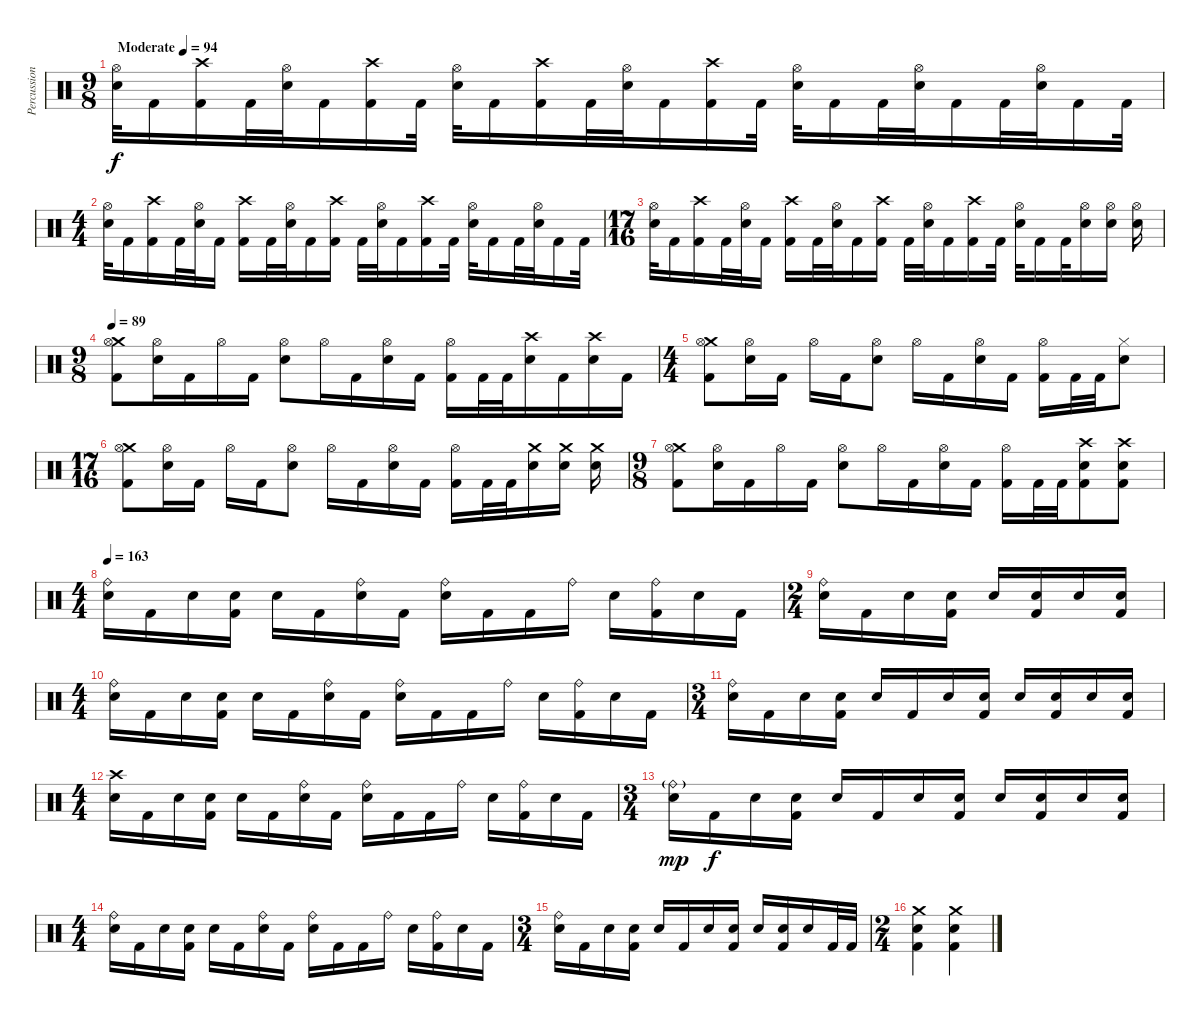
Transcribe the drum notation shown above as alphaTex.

\track ("Percussion" "Percussion") {instrument percussion}
\staff {score}
\articulation defaults
\ts (9 8)
\tempo (94 "Moderate")
\clef neutral
\ks c
("Hi-Hat (open)" "Electric Snare (hit)").32{dy f} "Kick (hit) 2".16 ("Crash high (hit)" "Kick (hit) 2").16 "Kick (hit) 2".32 ("Hi-Hat (open)" "Electric Snare (hit)").32 "Kick (hit) 2".16 ("Crash high (hit)" "Kick (hit) 2").16 "Kick (hit) 2".32 ("Hi-Hat (open)" "Electric Snare (hit)").32 "Kick (hit) 2".16 ("Crash high (hit)" "Kick (hit) 2").16 "Kick (hit) 2".32 ("Hi-Hat (open)" "Electric Snare (hit)").32 "Kick (hit) 2".16 ("Crash high (hit)" "Kick (hit) 2").16 "Kick (hit) 2".32 ("Hi-Hat (open)" "Electric Snare (hit)").32 "Kick (hit) 2".16 "Kick (hit) 2".32 ("Hi-Hat (open)" "Electric Snare (hit)").32 "Kick (hit) 2".16 "Kick (hit) 2".32 ("Hi-Hat (open)" "Electric Snare (hit)").32 "Kick (hit) 2".16 "Kick (hit) 2".32 |
\ts (4 4)
("Hi-Hat (open)" "Electric Snare (hit)").32 "Kick (hit) 2".16 ("Crash high (hit)" "Kick (hit) 2").16 "Kick (hit) 2".32 ("Hi-Hat (open)" "Electric Snare (hit)").32 "Kick (hit) 2".16 ("Crash high (hit)" "Kick (hit) 2").16 "Kick (hit) 2".32 ("Hi-Hat (open)" "Electric Snare (hit)").32 "Kick (hit) 2".16 ("Crash high (hit)" "Kick (hit) 2").16 "Kick (hit) 2".32 ("Hi-Hat (open)" "Electric Snare (hit)").32 "Kick (hit) 2".16 ("Crash high (hit)" "Kick (hit) 2").16 "Kick (hit) 2".32 ("Hi-Hat (open)" "Electric Snare (hit)").32 "Kick (hit) 2".16 "Kick (hit) 2".32 ("Hi-Hat (open)" "Electric Snare (hit)").32 "Kick (hit) 2".16 "Kick (hit) 2".32 |
\ts (17 16)
("Hi-Hat (open)" "Electric Snare (hit)").32 "Kick (hit) 2".16 ("Crash high (hit)" "Kick (hit) 2").16 "Kick (hit) 2".32 ("Hi-Hat (open)" "Electric Snare (hit)").32 "Kick (hit) 2".16 ("Crash high (hit)" "Kick (hit) 2").16 "Kick (hit) 2".32 ("Hi-Hat (open)" "Electric Snare (hit)").32 "Kick (hit) 2".16 ("Crash high (hit)" "Kick (hit) 2").16 "Kick (hit) 2".32 ("Hi-Hat (open)" "Electric Snare (hit)").32 "Kick (hit) 2".16 ("Crash high (hit)" "Kick (hit) 2").16 "Kick (hit) 2".32 ("Hi-Hat (open)" "Electric Snare (hit)").32 "Kick (hit) 2".16 "Kick (hit) 2".32 ("Hi-Hat (open)" "Electric Snare (hit)").16 ("Hi-Hat (open)" "Electric Snare (hit)").16 ("Hi-Hat (open)" "Electric Snare (hit)").16 |
\ts (9 8)
\tempo 89
("Crash medium (hit)" "Hi-Hat (open)" "Kick (hit) 2").8 ("Hi-Hat (open)" "Electric Snare (hit)").16 "Kick (hit) 2".16 "Hi-Hat (open)".16 "Kick (hit) 2".16 ("Hi-Hat (open)" "Electric Snare (hit)").8 "Hi-Hat (open)".16 "Kick (hit) 2".16 ("Hi-Hat (open)" "Electric Snare (hit)").16 "Kick (hit) 2".16 ("Hi-Hat (open)" "Kick (hit) 2").16 "Kick (hit) 2".32 "Kick (hit) 2".32 ("Crash high (hit)" "Electric Snare (hit)").16 "Kick (hit) 2".16 ("Crash high (hit)" "Electric Snare (hit)").16 "Kick (hit) 2".16 |
\ts (4 4)
("Crash medium (hit)" "Hi-Hat (open)" "Kick (hit) 2").8 ("Hi-Hat (open)" "Electric Snare (hit)").16 "Kick (hit) 2".16 "Hi-Hat (open)".16 "Kick (hit) 2".16 ("Hi-Hat (open)" "Electric Snare (hit)").8 "Hi-Hat (open)".16 "Kick (hit) 2".16 ("Hi-Hat (open)" "Electric Snare (hit)").16 "Kick (hit) 2".16 ("Hi-Hat (open)" "Kick (hit) 2").16 "Kick (hit) 2".32 "Kick (hit) 2".32 ("Hi-Hat (closed)" "Electric Snare (hit)").8 |
\ts (17 16)
("Crash medium (hit)" "Hi-Hat (open)" "Kick (hit) 2").8 ("Hi-Hat (open)" "Electric Snare (hit)").16 "Kick (hit) 2".16 "Hi-Hat (open)".16 "Kick (hit) 2".16 ("Hi-Hat (open)" "Electric Snare (hit)").8 "Hi-Hat (open)".16 "Kick (hit) 2".16 ("Hi-Hat (open)" "Electric Snare (hit)").16 "Kick (hit) 2".16 ("Hi-Hat (open)" "Kick (hit) 2").16 "Kick (hit) 2".32 "Kick (hit) 2".32 ("Crash medium (hit)" "Electric Snare (hit)").16 ("Crash medium (hit)" "Electric Snare (hit)").16 ("Crash medium (hit)" "Electric Snare (hit)").16 |
\ts (9 8)
("Crash medium (hit)" "Hi-Hat (open)" "Kick (hit) 2").8 ("Hi-Hat (open)" "Electric Snare (hit)").16 "Kick (hit) 2".16 "Hi-Hat (open)".16 "Kick (hit) 2".16 ("Hi-Hat (open)" "Electric Snare (hit)").8 "Hi-Hat (open)".16 "Kick (hit) 2".16 ("Hi-Hat (open)" "Electric Snare (hit)").16 "Kick (hit) 2".16 ("Hi-Hat (open)" "Kick (hit) 2").16 "Kick (hit) 2".32 "Kick (hit) 2".32 ("Crash high (hit)" "Electric Snare (hit)" "Kick (hit) 2").8 ("Crash high (hit)" "Electric Snare (hit)" "Kick (hit) 2").8 |
\ts (4 4)
\tempo 163
("Ride (bell)" "Electric Snare (hit)").16 "Kick (hit) 2".16 "Electric Snare (hit)".16 ("Electric Snare (hit)" "Kick (hit) 2").16 "Electric Snare (hit)".16 "Kick (hit) 2".16 ("Ride (bell)" "Electric Snare (hit)").16 "Kick (hit) 2".16 ("Ride (bell)" "Electric Snare (hit)").16 "Kick (hit) 2".16 "Kick (hit) 2".16 "Ride (bell)".16 "Electric Snare (hit)".16 ("Ride (bell)" "Kick (hit) 2").16 "Electric Snare (hit)".16 "Kick (hit) 2".16 |
\ts (2 4)
("Ride (bell)" "Electric Snare (hit)").16 "Kick (hit) 2".16 "Electric Snare (hit)".16 ("Electric Snare (hit)" "Kick (hit) 2").16 "Electric Snare (hit)".16 ("Electric Snare (hit)" "Kick (hit) 2").16 "Electric Snare (hit)".16 ("Electric Snare (hit)" "Kick (hit) 2").16 |
\ts (4 4)
("Ride (bell)" "Electric Snare (hit)").16 "Kick (hit) 2".16 "Electric Snare (hit)".16 ("Electric Snare (hit)" "Kick (hit) 2").16 "Electric Snare (hit)".16 "Kick (hit) 2".16 ("Ride (bell)" "Electric Snare (hit)").16 "Kick (hit) 2".16 ("Ride (bell)" "Electric Snare (hit)").16 "Kick (hit) 2".16 "Kick (hit) 2".16 "Ride (bell)".16 "Electric Snare (hit)".16 ("Ride (bell)" "Kick (hit) 2").16 "Electric Snare (hit)".16 "Kick (hit) 2".16 |
\ts (3 4)
("Ride (bell)" "Electric Snare (hit)").16 "Kick (hit) 2".16 "Electric Snare (hit)".16 ("Electric Snare (hit)" "Kick (hit) 2").16 "Electric Snare (hit)".16 "Kick (hit) 2".16 "Electric Snare (hit)".16 ("Electric Snare (hit)" "Kick (hit) 2").16 "Electric Snare (hit)".16 ("Electric Snare (hit)" "Kick (hit) 2").16 "Electric Snare (hit)".16 ("Electric Snare (hit)" "Kick (hit) 2").16 |
\ts (4 4)
("Crash high (hit)" "Electric Snare (hit)").16 "Kick (hit) 2".16 "Electric Snare (hit)".16 ("Electric Snare (hit)" "Kick (hit) 2").16 "Electric Snare (hit)".16 "Kick (hit) 2".16 ("Ride (bell)" "Electric Snare (hit)").16 "Kick (hit) 2".16 ("Ride (bell)" "Electric Snare (hit)").16 "Kick (hit) 2".16 "Kick (hit) 2".16 "Ride (bell)".16 "Electric Snare (hit)".16 ("Ride (bell)" "Kick (hit) 2").16 "Electric Snare (hit)".16 "Kick (hit) 2".16 |
\ts (3 4)
("Ride (bell)"{g} "Electric Snare (hit)").16{dy mp} "Kick (hit) 2".16{dy f} "Electric Snare (hit)".16 ("Electric Snare (hit)" "Kick (hit) 2").16 "Electric Snare (hit)".16 "Kick (hit) 2".16 "Electric Snare (hit)".16 ("Electric Snare (hit)" "Kick (hit) 2").16 "Electric Snare (hit)".16 ("Electric Snare (hit)" "Kick (hit) 2").16 "Electric Snare (hit)".16 ("Electric Snare (hit)" "Kick (hit) 2").16 |
\ts (4 4)
("Ride (bell)" "Electric Snare (hit)").16 "Kick (hit) 2".16 "Electric Snare (hit)".16 ("Electric Snare (hit)" "Kick (hit) 2").16 "Electric Snare (hit)".16 "Kick (hit) 2".16 ("Ride (bell)" "Electric Snare (hit)").16 "Kick (hit) 2".16 ("Ride (bell)" "Electric Snare (hit)").16 "Kick (hit) 2".16 "Kick (hit) 2".16 "Ride (bell)".16 "Electric Snare (hit)".16 ("Ride (bell)" "Kick (hit) 2").16 "Electric Snare (hit)".16 "Kick (hit) 2".16 |
\ts (3 4)
("Ride (bell)" "Electric Snare (hit)").16 "Kick (hit) 2".16 "Electric Snare (hit)".16 ("Electric Snare (hit)" "Kick (hit) 2").16 "Electric Snare (hit)".16 "Kick (hit) 2".16 "Electric Snare (hit)".16 ("Electric Snare (hit)" "Kick (hit) 2").16 "Electric Snare (hit)".16 ("Electric Snare (hit)" "Kick (hit) 2").16 "Electric Snare (hit)".16 "Kick (hit) 2".32 "Kick (hit) 2".32 |
\ts (2 4)
("Crash medium (hit)" "Electric Snare (hit)" "Kick (hit) 2").4 ("Crash medium (hit)" "Electric Snare (hit)" "Kick (hit) 2").4
